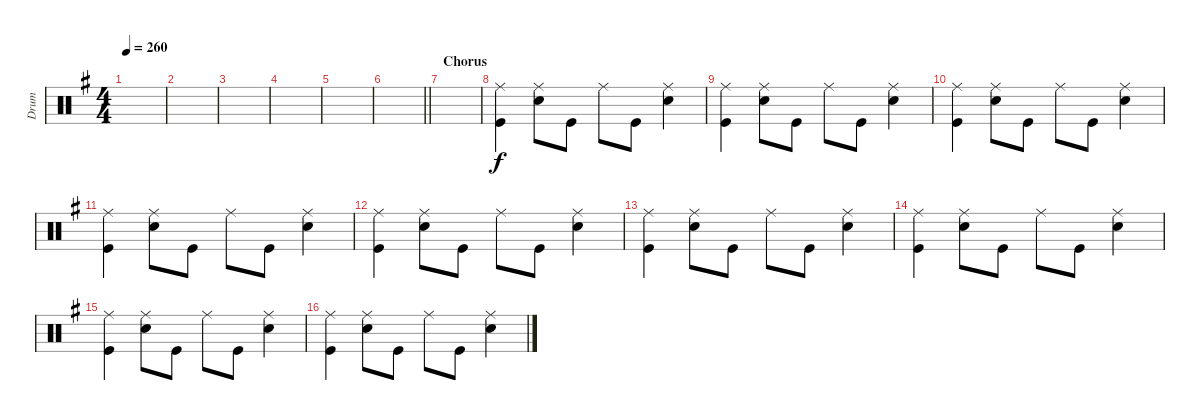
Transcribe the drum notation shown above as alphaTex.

\track ("Drum" "Drum") {instrument percussion}
\staff {score}
\articulation defaults
\ts (4 4)
\tempo 260
\clef neutral
\ks g
|
|
|
|
|
\barLineRight lightlight
|
\section ("" "Chorus")
|
("Ride (middle)" "Kick (hit)").4 ("Ride (middle)" "Snare (hit) 2").8 "Kick (hit)".8 "Ride (middle)".8 "Kick (hit)".8 ("Ride (middle)" "Snare (hit) 2").4 |
("Ride (middle)" "Kick (hit)").4 ("Ride (middle)" "Snare (hit) 2").8 "Kick (hit)".8 "Ride (middle)".8 "Kick (hit)".8 ("Ride (middle)" "Snare (hit) 2").4 |
("Ride (middle)" "Kick (hit)").4 ("Ride (middle)" "Snare (hit) 2").8 "Kick (hit)".8 "Ride (middle)".8 "Kick (hit)".8 ("Ride (middle)" "Snare (hit) 2").4 |
("Ride (middle)" "Kick (hit)").4 ("Ride (middle)" "Snare (hit) 2").8 "Kick (hit)".8 "Ride (middle)".8 "Kick (hit)".8 ("Ride (middle)" "Snare (hit) 2").4 |
("Ride (middle)" "Kick (hit)").4 ("Ride (middle)" "Snare (hit) 2").8 "Kick (hit)".8 "Ride (middle)".8 "Kick (hit)".8 ("Ride (middle)" "Snare (hit) 2").4 |
("Ride (middle)" "Kick (hit)").4 ("Ride (middle)" "Snare (hit) 2").8 "Kick (hit)".8 "Ride (middle)".8 "Kick (hit)".8 ("Ride (middle)" "Snare (hit) 2").4 |
("Ride (middle)" "Kick (hit)").4 ("Ride (middle)" "Snare (hit) 2").8 "Kick (hit)".8 "Ride (middle)".8 "Kick (hit)".8 ("Ride (middle)" "Snare (hit) 2").4 |
("Ride (middle)" "Kick (hit)").4 ("Ride (middle)" "Snare (hit) 2").8 "Kick (hit)".8 "Ride (middle)".8 "Kick (hit)".8 ("Ride (middle)" "Snare (hit) 2").4 |
("Ride (middle)" "Kick (hit)").4 ("Ride (middle)" "Snare (hit) 2").8 "Kick (hit)".8 "Ride (middle)".8 "Kick (hit)".8 ("Ride (middle)" "Snare (hit) 2").4
